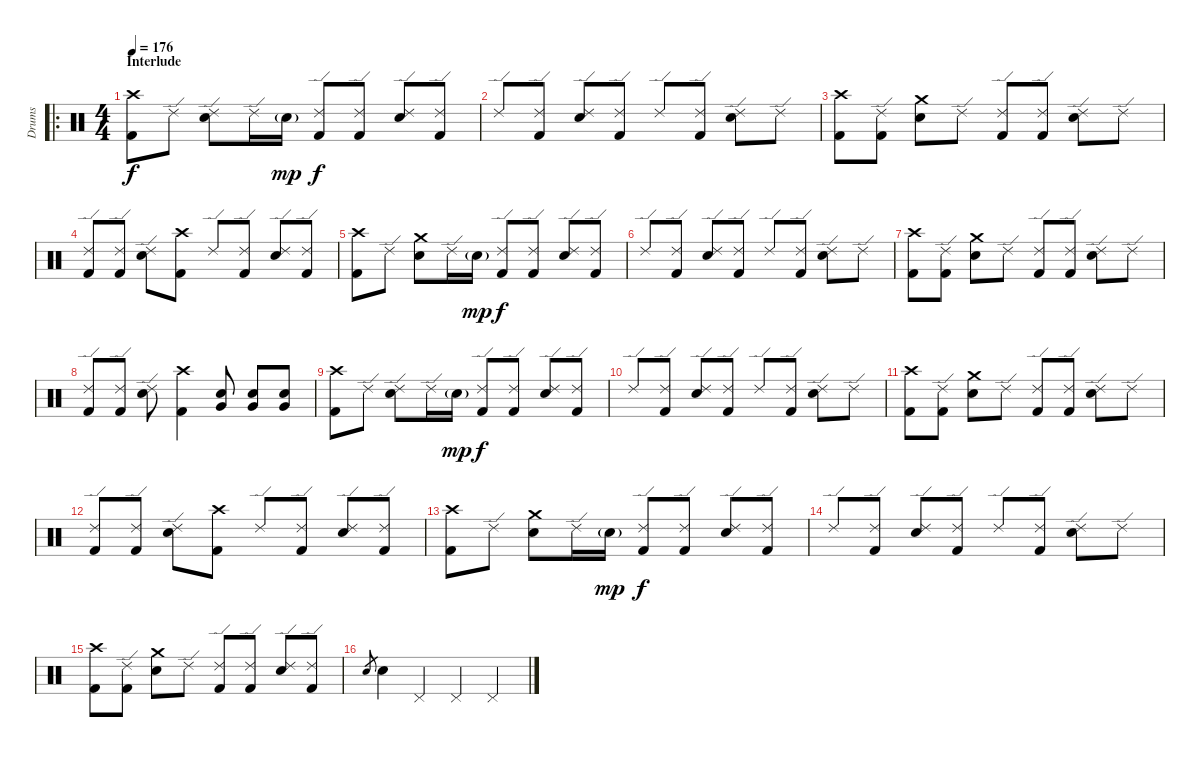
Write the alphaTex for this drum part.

\track ("Drums" "Drums") {instrument percussion}
\staff {score}
\articulation defaults
\ro
\ts (4 4)
\section ("" "Interlude")
\tempo 176
\clef neutral
\ks c
("Crash high (hit)" "Kick (hit) 2").8{dy f} "Ride (edge) 2".8 ("Ride (edge) 2" "Electric Snare (hit)").8 "Ride (edge) 2".16 "Electric Snare (hit)"{g}.16{dy mp} ("Ride (edge) 2" "Kick (hit) 2").8{dy f} ("Ride (edge) 2" "Kick (hit) 2").8 ("Ride (edge) 2" "Electric Snare (hit)").8 ("Ride (edge) 2" "Kick (hit) 2").8 |
"Ride (edge) 2".8 ("Ride (edge) 2" "Kick (hit) 2").8 ("Ride (edge) 2" "Electric Snare (hit)").8 ("Ride (edge) 2" "Kick (hit) 2").8 "Ride (edge) 2".8 ("Ride (edge) 2" "Kick (hit) 2").8 ("Ride (edge) 2" "Electric Snare (hit)").8 "Ride (edge) 2".8 |
("Crash high (hit)" "Kick (hit) 2").8 ("Ride (edge) 2" "Kick (hit) 2").8 ("Crash medium (hit)" "Electric Snare (hit)").8 "Ride (edge) 2".8 ("Ride (edge) 2" "Kick (hit) 2").8 ("Ride (edge) 2" "Kick (hit) 2").8 ("Ride (edge) 2" "Electric Snare (hit)").8 "Ride (edge) 2".8 |
("Ride (edge) 2" "Kick (hit) 2").8 ("Ride (edge) 2" "Kick (hit) 2").8 ("Ride (edge) 2" "Electric Snare (hit)").8 ("Crash high (hit)" "Kick (hit) 2").8 "Ride (edge) 2".8 ("Ride (edge) 2" "Kick (hit) 2").8 ("Ride (edge) 2" "Electric Snare (hit)").8 ("Ride (edge) 2" "Kick (hit) 2").8 |
("Crash high (hit)" "Kick (hit) 2").8 "Ride (edge) 2".8 ("Crash medium (hit)" "Electric Snare (hit)").8 "Ride (edge) 2".16 "Electric Snare (hit)"{g}.16{dy mp} ("Ride (edge) 2" "Kick (hit) 2").8{dy f} ("Ride (edge) 2" "Kick (hit) 2").8 ("Ride (edge) 2" "Electric Snare (hit)").8 ("Ride (edge) 2" "Kick (hit) 2").8 |
"Ride (edge) 2".8 ("Ride (edge) 2" "Kick (hit) 2").8 ("Ride (edge) 2" "Electric Snare (hit)").8 ("Ride (edge) 2" "Kick (hit) 2").8 "Ride (edge) 2".8 ("Ride (edge) 2" "Kick (hit) 2").8 ("Ride (edge) 2" "Electric Snare (hit)").8 "Ride (edge) 2".8 |
("Crash high (hit)" "Kick (hit) 2").8 ("Ride (edge) 2" "Kick (hit) 2").8 ("Crash medium (hit)" "Electric Snare (hit)").8 "Ride (edge) 2".8 ("Ride (edge) 2" "Kick (hit) 2").8 ("Ride (edge) 2" "Kick (hit) 2").8 ("Ride (edge) 2" "Electric Snare (hit)").8 "Ride (edge) 2".8 |
("Ride (edge) 2" "Kick (hit) 2").8 ("Ride (edge) 2" "Kick (hit) 2").8 ("Ride (edge) 2" "Electric Snare (hit)").8 ("Crash high (hit)" "Kick (hit) 2").4 ("Electric Snare (hit)" "Very Low Tom (hit)").8 ("Electric Snare (hit)" "Very Low Tom (hit)").8 ("Electric Snare (hit)" "Very Low Tom (hit)").8 |
("Crash high (hit)" "Kick (hit) 2").8 "Ride (edge) 2".8 ("Ride (edge) 2" "Electric Snare (hit)").8 "Ride (edge) 2".16 "Electric Snare (hit)"{g}.16{dy mp} ("Ride (edge) 2" "Kick (hit) 2").8{dy f} ("Ride (edge) 2" "Kick (hit) 2").8 ("Ride (edge) 2" "Electric Snare (hit)").8 ("Ride (edge) 2" "Kick (hit) 2").8 |
"Ride (edge) 2".8 ("Ride (edge) 2" "Kick (hit) 2").8 ("Ride (edge) 2" "Electric Snare (hit)").8 ("Ride (edge) 2" "Kick (hit) 2").8 "Ride (edge) 2".8 ("Ride (edge) 2" "Kick (hit) 2").8 ("Ride (edge) 2" "Electric Snare (hit)").8 "Ride (edge) 2".8 |
("Crash high (hit)" "Kick (hit) 2").8 ("Ride (edge) 2" "Kick (hit) 2").8 ("Crash medium (hit)" "Electric Snare (hit)").8 "Ride (edge) 2".8 ("Ride (edge) 2" "Kick (hit) 2").8 ("Ride (edge) 2" "Kick (hit) 2").8 ("Ride (edge) 2" "Electric Snare (hit)").8 "Ride (edge) 2".8 |
("Ride (edge) 2" "Kick (hit) 2").8 ("Ride (edge) 2" "Kick (hit) 2").8 ("Ride (edge) 2" "Electric Snare (hit)").8 ("Crash high (hit)" "Kick (hit) 2").8 "Ride (edge) 2".8 ("Ride (edge) 2" "Kick (hit) 2").8 ("Ride (edge) 2" "Electric Snare (hit)").8 ("Ride (edge) 2" "Kick (hit) 2").8 |
("Crash high (hit)" "Kick (hit) 2").8 "Ride (edge) 2".8 ("Crash medium (hit)" "Electric Snare (hit)").8 "Ride (edge) 2".16 "Electric Snare (hit)"{g}.16{dy mp} ("Ride (edge) 2" "Kick (hit) 2").8{dy f} ("Ride (edge) 2" "Kick (hit) 2").8 ("Ride (edge) 2" "Electric Snare (hit)").8 ("Ride (edge) 2" "Kick (hit) 2").8 |
"Ride (edge) 2".8 ("Ride (edge) 2" "Kick (hit) 2").8 ("Ride (edge) 2" "Electric Snare (hit)").8 ("Ride (edge) 2" "Kick (hit) 2").8 "Ride (edge) 2".8 ("Ride (edge) 2" "Kick (hit) 2").8 ("Ride (edge) 2" "Electric Snare (hit)").8 "Ride (edge) 2".8 |
("Crash high (hit)" "Kick (hit) 2").8 ("Ride (edge) 2" "Kick (hit) 2").8 ("Crash medium (hit)" "Electric Snare (hit)").8 "Ride (edge) 2".8 ("Ride (edge) 2" "Kick (hit) 2").8 ("Ride (edge) 2" "Kick (hit) 2").8 ("Ride (edge) 2" "Electric Snare (hit)").8 ("Ride (edge) 2" "Kick (hit) 2").8 |
"Electric Snare (hit)".8{gr} "Electric Snare (hit)".4 "Pedal Hi-Hat (hit)".4 "Pedal Hi-Hat (hit)".4 "Pedal Hi-Hat (hit)".4
